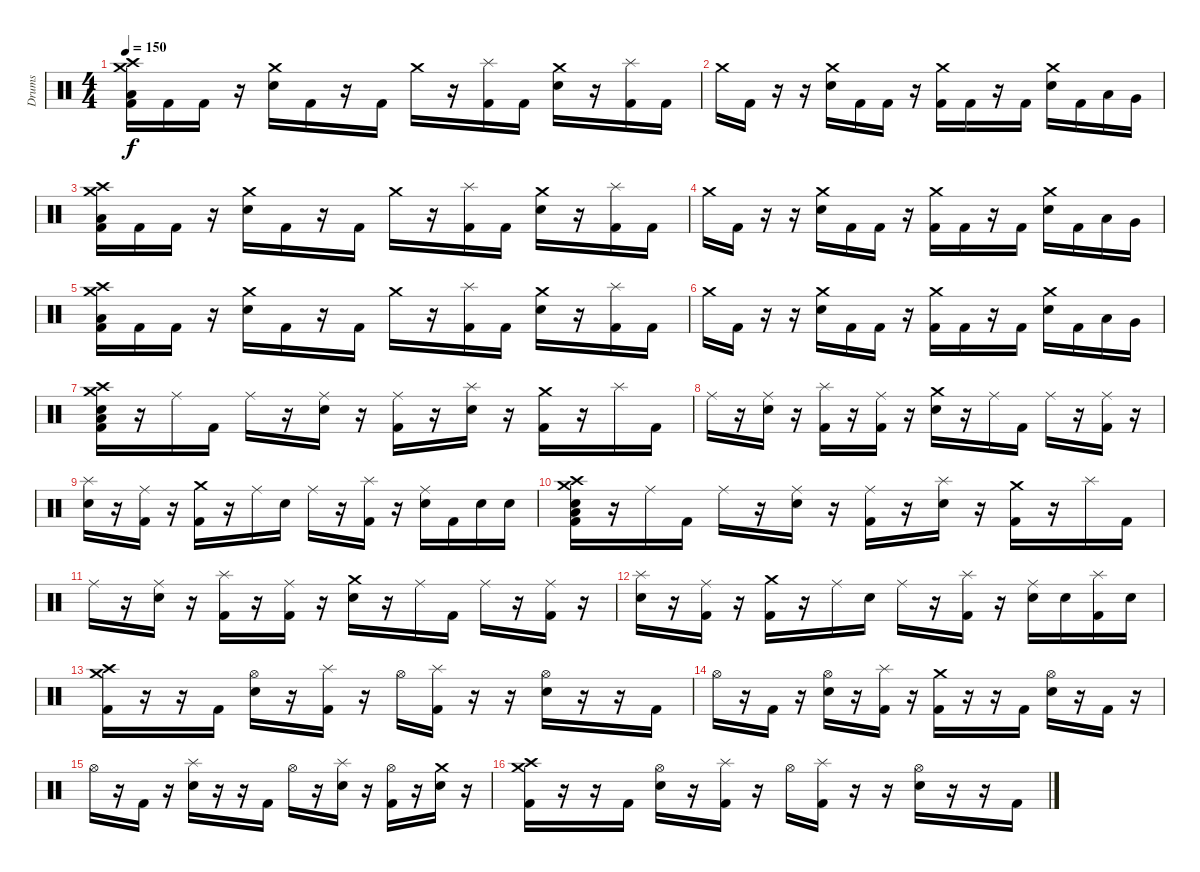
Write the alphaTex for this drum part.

\track ("Drums" "Drums") {instrument percussion}
\staff {score}
\articulation defaults
\ts (4 4)
\tempo 150
\clef neutral
\ks c
("Crash high (hit)" "Crash medium (hit)" "Low Floor Tom (hit)" "Kick (hit) 2").16{dy f} "Kick (hit) 2".16 "Kick (hit) 2".16 r.16 ("Crash medium (hit)" "Electric Snare (hit)").16 "Kick (hit) 2".16 r.16 "Kick (hit) 2".16 "Crash medium (hit)".16 r.16 ("Splash (hit)" "Kick (hit) 2").16 "Kick (hit) 2".16 ("Crash medium (hit)" "Electric Snare (hit)").16 r.16 ("Splash (hit)" "Kick (hit) 2").16 "Kick (hit) 2".16 |
"Crash medium (hit)".16 "Kick (hit) 2".16 r.16 r.16 ("Crash medium (hit)" "Electric Snare (hit)").16 "Kick (hit) 2".16 "Kick (hit) 2".16 r.16 ("Crash medium (hit)" "Kick (hit) 2").16 "Kick (hit) 2".16 r.16 "Kick (hit) 2".16 ("Crash medium (hit)" "Electric Snare (hit)").16 "Kick (hit) 2".16 "Low Tom (hit)".16 "Very Low Tom (hit)".16 |
("Crash high (hit)" "Crash medium (hit)" "Low Floor Tom (hit)" "Kick (hit) 2").16 "Kick (hit) 2".16 "Kick (hit) 2".16 r.16 ("Crash medium (hit)" "Electric Snare (hit)").16 "Kick (hit) 2".16 r.16 "Kick (hit) 2".16 "Crash medium (hit)".16 r.16 ("Splash (hit)" "Kick (hit) 2").16 "Kick (hit) 2".16 ("Crash medium (hit)" "Electric Snare (hit)").16 r.16 ("Splash (hit)" "Kick (hit) 2").16 "Kick (hit) 2".16 |
"Crash medium (hit)".16 "Kick (hit) 2".16 r.16 r.16 ("Crash medium (hit)" "Electric Snare (hit)").16 "Kick (hit) 2".16 "Kick (hit) 2".16 r.16 ("Crash medium (hit)" "Kick (hit) 2").16 "Kick (hit) 2".16 r.16 "Kick (hit) 2".16 ("Crash medium (hit)" "Electric Snare (hit)").16 "Kick (hit) 2".16 "Low Tom (hit)".16 "Very Low Tom (hit)".16 |
("Crash high (hit)" "Crash medium (hit)" "Low Floor Tom (hit)" "Kick (hit) 2").16 "Kick (hit) 2".16 "Kick (hit) 2".16 r.16 ("Crash medium (hit)" "Electric Snare (hit)").16 "Kick (hit) 2".16 r.16 "Kick (hit) 2".16 "Crash medium (hit)".16 r.16 ("Splash (hit)" "Kick (hit) 2").16 "Kick (hit) 2".16 ("Crash medium (hit)" "Electric Snare (hit)").16 r.16 ("Splash (hit)" "Kick (hit) 2").16 "Kick (hit) 2".16 |
"Crash medium (hit)".16 "Kick (hit) 2".16 r.16 r.16 ("Crash medium (hit)" "Electric Snare (hit)").16 "Kick (hit) 2".16 "Kick (hit) 2".16 r.16 ("Crash medium (hit)" "Kick (hit) 2").16 "Kick (hit) 2".16 r.16 "Kick (hit) 2".16 ("Crash medium (hit)" "Electric Snare (hit)").16 "Kick (hit) 2".16 "Low Tom (hit)".16 "Very Low Tom (hit)".16 |
("Crash high (hit)" "Crash medium (hit)" "Electric Snare (hit)" "Low Floor Tom (hit)" "Kick (hit) 2").16 r.16 "Ride (middle)".16 "Kick (hit) 2".16 "Ride (middle)".16 r.16 ("Ride (middle)" "Electric Snare (hit)").16 r.16 ("Ride (middle)" "Kick (hit) 2").16 r.16 ("Splash (hit)" "Electric Snare (hit)").16 r.16 ("Crash medium (hit)" "Kick (hit) 2").16 r.16 "Splash (hit)".16 "Kick (hit) 2".16 |
"Ride (middle)".16 r.16 ("Ride (middle)" "Electric Snare (hit)").16 r.16 ("Splash (hit)" "Kick (hit) 2").16 r.16 ("Ride (middle)" "Kick (hit) 2").16 r.16 ("Crash medium (hit)" "Electric Snare (hit)").16 r.16 "Ride (middle)".16 "Kick (hit) 2".16 "Ride (middle)".16 r.16 ("Ride (middle)" "Kick (hit) 2").16 r.16 |
("Splash (hit)" "Electric Snare (hit)").16 r.16 ("Ride (middle)" "Kick (hit) 2").16 r.16 ("Crash medium (hit)" "Kick (hit) 2").16 r.16 "Ride (middle)".16 "Electric Snare (hit)".16 "Ride (middle)".16 r.16 ("Splash (hit)" "Kick (hit) 2").16 r.16 ("Ride (middle)" "Electric Snare (hit)").16 "Kick (hit) 2".16 "Electric Snare (hit)".16 "Electric Snare (hit)".16 |
("Crash high (hit)" "Crash medium (hit)" "Electric Snare (hit)" "Low Floor Tom (hit)" "Kick (hit) 2").16 r.16 "Ride (middle)".16 "Kick (hit) 2".16 "Ride (middle)".16 r.16 ("Ride (middle)" "Electric Snare (hit)").16 r.16 ("Ride (middle)" "Kick (hit) 2").16 r.16 ("Splash (hit)" "Electric Snare (hit)").16 r.16 ("Crash medium (hit)" "Kick (hit) 2").16 r.16 "Splash (hit)".16 "Kick (hit) 2".16 |
"Ride (middle)".16 r.16 ("Ride (middle)" "Electric Snare (hit)").16 r.16 ("Splash (hit)" "Kick (hit) 2").16 r.16 ("Ride (middle)" "Kick (hit) 2").16 r.16 ("Crash medium (hit)" "Electric Snare (hit)").16 r.16 "Ride (middle)".16 "Kick (hit) 2".16 "Ride (middle)".16 r.16 ("Ride (middle)" "Kick (hit) 2").16 r.16 |
("Splash (hit)" "Electric Snare (hit)").16 r.16 ("Ride (middle)" "Kick (hit) 2").16 r.16 ("Crash medium (hit)" "Kick (hit) 2").16 r.16 "Ride (middle)".16 "Electric Snare (hit)".16 "Ride (middle)".16 r.16 ("Splash (hit)" "Kick (hit) 2").16 r.16 ("Ride (middle)" "Electric Snare (hit)").16 "Electric Snare (hit)".16 ("Splash (hit)" "Kick (hit) 2").16 "Electric Snare (hit)".16 |
("Crash high (hit)" "Crash medium (hit)" "Kick (hit) 2").16 r.16 r.16 "Kick (hit) 2".16 ("Hi-Hat (open)" "Electric Snare (hit)").16 r.16 ("Splash (hit)" "Kick (hit) 2").16 r.16 "Hi-Hat (open)".16 ("Splash (hit)" "Kick (hit) 2").16 r.16 r.16 ("Hi-Hat (open)" "Electric Snare (hit)").16 r.16 r.16 "Kick (hit) 2".16 |
"Hi-Hat (open)".16 r.16 "Kick (hit) 2".16 r.16 ("Hi-Hat (open)" "Electric Snare (hit)").16 r.16 ("Splash (hit)" "Kick (hit) 2").16 r.16 ("Crash medium (hit)" "Kick (hit) 2").16 r.16 r.16 "Kick (hit) 2".16 ("Hi-Hat (open)" "Electric Snare (hit)").16 r.16 "Kick (hit) 2".16 r.16 |
"Hi-Hat (open)".16 r.16 "Kick (hit) 2".16 r.16 ("Splash (hit)" "Electric Snare (hit)").16 r.16 r.16 "Kick (hit) 2".16 "Hi-Hat (open)".16 r.16 ("Splash (hit)" "Electric Snare (hit)").16 r.16 ("Hi-Hat (open)" "Kick (hit) 2").16 r.16 ("Crash medium (hit)" "Electric Snare (hit)").16 r.16 |
("Crash high (hit)" "Crash medium (hit)" "Kick (hit) 2").16 r.16 r.16 "Kick (hit) 2".16 ("Hi-Hat (open)" "Electric Snare (hit)").16 r.16 ("Splash (hit)" "Kick (hit) 2").16 r.16 "Hi-Hat (open)".16 ("Splash (hit)" "Kick (hit) 2").16 r.16 r.16 ("Hi-Hat (open)" "Electric Snare (hit)").16 r.16 r.16 "Kick (hit) 2".16
